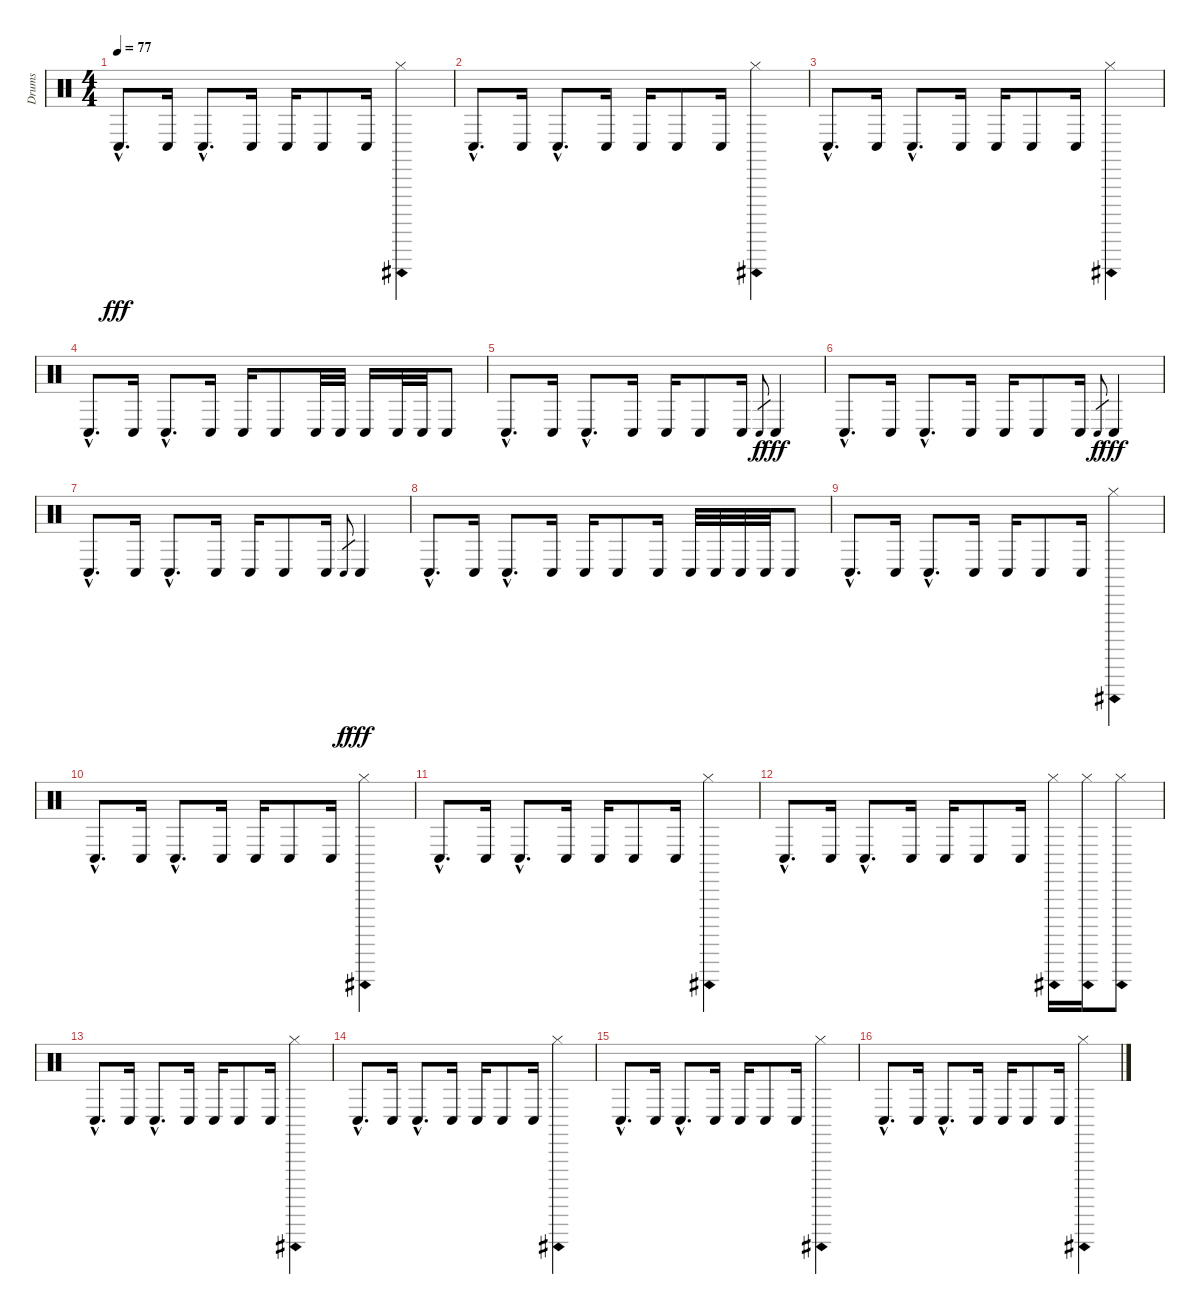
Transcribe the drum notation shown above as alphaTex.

\track ("Drums" "Drums") {instrument percussion}
\staff {score}
\articulation defaults
\ts (4 4)
\tempo 77
\clef neutral
\ks c "Conga low (hit)"{hac}.8{d dy fff} "Conga low (hit)".16 "Conga low (hit)"{hac}.8{d} "Conga low (hit)".16 "Conga low (hit)".16 "Conga low (hit)".8 "Conga low (hit)".16 "Hi-Hat (closed)"{ah 12}.4
|
"Conga low (hit)"{hac}.8{d} "Conga low (hit)".16 "Conga low (hit)"{hac}.8{d} "Conga low (hit)".16 "Conga low (hit)".16 "Conga low (hit)".8 "Conga low (hit)".16 "Hi-Hat (closed)"{ah 12}.4 |
"Conga low (hit)"{hac}.8{d} "Conga low (hit)".16 "Conga low (hit)"{hac}.8{d} "Conga low (hit)".16 "Conga low (hit)".16 "Conga low (hit)".8 "Conga low (hit)".16 "Hi-Hat (closed)"{ah 12}.4 |
"Conga low (hit)"{hac}.8{d} "Conga low (hit)".16 "Conga low (hit)"{hac}.8{d} "Conga low (hit)".16 "Conga low (hit)".16 "Conga low (hit)".8 "Conga low (hit)".32 "Conga low (hit)".32 "Conga low (hit)".16 "Conga low (hit)".32 "Conga low (hit)".32 "Conga low (hit)".8 |
"Conga low (hit)"{hac}.8{d} "Conga low (hit)".16 "Conga low (hit)"{hac}.8{d} "Conga low (hit)".16 "Conga low (hit)".16 "Conga low (hit)".8 "Conga low (hit)".16 "Conga low (hit)".8{gr dy f} "Conga low (hit)".4{dy fff} |
"Conga low (hit)"{hac}.8{d} "Conga low (hit)".16 "Conga low (hit)"{hac}.8{d} "Conga low (hit)".16 "Conga low (hit)".16 "Conga low (hit)".8 "Conga low (hit)".16 "Conga low (hit)".8{gr dy f} "Conga low (hit)".4{dy fff} |
"Conga low (hit)"{hac}.8{d} "Conga low (hit)".16 "Conga low (hit)"{hac}.8{d} "Conga low (hit)".16 "Conga low (hit)".16 "Conga low (hit)".8 "Conga low (hit)".16 "Conga low (hit)".8{gr dy f} "Conga low (hit)".4{dy fff} |
"Conga low (hit)"{hac}.8{d} "Conga low (hit)".16 "Conga low (hit)"{hac}.8{d} "Conga low (hit)".16 "Conga low (hit)".16 "Conga low (hit)".8 "Conga low (hit)".16 "Conga low (hit)".32 "Conga low (hit)".32 "Conga low (hit)".32 "Conga low (hit)".32 "Conga low (hit)".8 |
"Conga low (hit)"{hac}.8{d} "Conga low (hit)".16 "Conga low (hit)"{hac}.8{d} "Conga low (hit)".16 "Conga low (hit)".16 "Conga low (hit)".8 "Conga low (hit)".16 "Hi-Hat (closed)"{ah 12}.4 |
"Conga low (hit)"{hac}.8{d} "Conga low (hit)".16 "Conga low (hit)"{hac}.8{d} "Conga low (hit)".16 "Conga low (hit)".16 "Conga low (hit)".8 "Conga low (hit)".16 "Hi-Hat (closed)"{ah 12}.4 |
"Conga low (hit)"{hac}.8{d} "Conga low (hit)".16 "Conga low (hit)"{hac}.8{d} "Conga low (hit)".16 "Conga low (hit)".16 "Conga low (hit)".8 "Conga low (hit)".16 "Hi-Hat (closed)"{ah 12}.4 |
"Conga low (hit)"{hac}.8{d} "Conga low (hit)".16 "Conga low (hit)"{hac}.8{d} "Conga low (hit)".16 "Conga low (hit)".16 "Conga low (hit)".8 "Conga low (hit)".16 "Hi-Hat (closed)"{ah 12}.16 "Hi-Hat (closed)"{ah 12}.16 "Hi-Hat (closed)"{ah 12}.8 |
"Conga low (hit)"{hac}.8{d} "Conga low (hit)".16 "Conga low (hit)"{hac}.8{d} "Conga low (hit)".16 "Conga low (hit)".16 "Conga low (hit)".8 "Conga low (hit)".16 "Hi-Hat (closed)"{ah 12}.4 |
"Conga low (hit)"{hac}.8{d} "Conga low (hit)".16 "Conga low (hit)"{hac}.8{d} "Conga low (hit)".16 "Conga low (hit)".16 "Conga low (hit)".8 "Conga low (hit)".16 "Hi-Hat (closed)"{ah 12}.4 |
"Conga low (hit)"{hac}.8{d} "Conga low (hit)".16 "Conga low (hit)"{hac}.8{d} "Conga low (hit)".16 "Conga low (hit)".16 "Conga low (hit)".8 "Conga low (hit)".16 "Hi-Hat (closed)"{ah 12}.4 |
"Conga low (hit)"{hac}.8{d} "Conga low (hit)".16 "Conga low (hit)"{hac}.8{d} "Conga low (hit)".16 "Conga low (hit)".16 "Conga low (hit)".8 "Conga low (hit)".16 "Hi-Hat (closed)"{ah 12}.4
